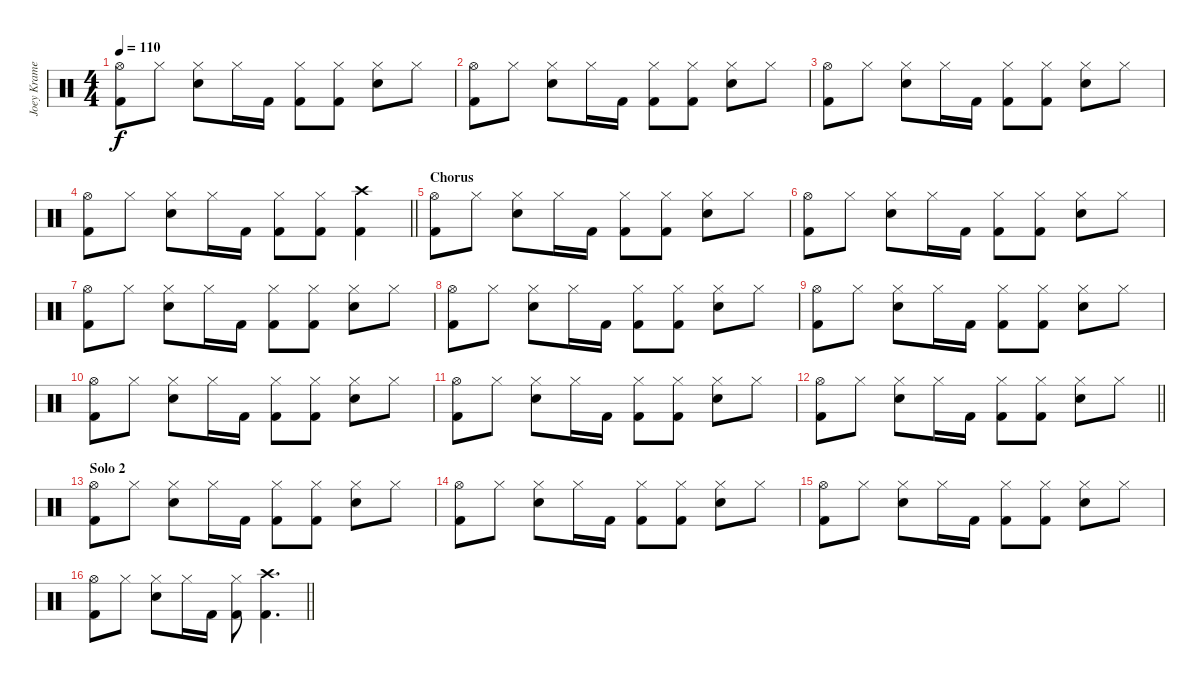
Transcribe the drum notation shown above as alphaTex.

\track ("Joey Kramer - Drums" "Joey Krame") {instrument percussion}
\staff {score}
\articulation defaults
\ts (4 4)
\tempo 110
\clef neutral
\ks c
("Hi-Hat (open)" "Kick (hit) 2").8{dy f} "Hi-Hat (closed)".8 ("Hi-Hat (closed)" "Electric Snare (hit)").8 "Hi-Hat (closed)".16 "Kick (hit) 2".16 ("Hi-Hat (closed)" "Kick (hit) 2").8 ("Hi-Hat (closed)" "Kick (hit) 2").8 ("Hi-Hat (closed)" "Electric Snare (hit)").8 "Hi-Hat (closed)".8 |
("Hi-Hat (open)" "Kick (hit) 2").8 "Hi-Hat (closed)".8 ("Hi-Hat (closed)" "Electric Snare (hit)").8 "Hi-Hat (closed)".16 "Kick (hit) 2".16 ("Hi-Hat (closed)" "Kick (hit) 2").8 ("Hi-Hat (closed)" "Kick (hit) 2").8 ("Hi-Hat (closed)" "Electric Snare (hit)").8 "Hi-Hat (closed)".8 |
("Hi-Hat (open)" "Kick (hit) 2").8 "Hi-Hat (closed)".8 ("Hi-Hat (closed)" "Electric Snare (hit)").8 "Hi-Hat (closed)".16 "Kick (hit) 2".16 ("Hi-Hat (closed)" "Kick (hit) 2").8 ("Hi-Hat (closed)" "Kick (hit) 2").8 ("Hi-Hat (closed)" "Electric Snare (hit)").8 "Hi-Hat (closed)".8 |
\barLineRight lightlight
("Hi-Hat (open)" "Kick (hit) 2").8 "Hi-Hat (closed)".8 ("Hi-Hat (closed)" "Electric Snare (hit)").8 "Hi-Hat (closed)".16 "Kick (hit) 2".16 ("Hi-Hat (closed)" "Kick (hit) 2").8 ("Hi-Hat (closed)" "Kick (hit) 2").8 ("Crash high (hit)" "Kick (hit) 2").4 |
\section ("" "Chorus")
("Hi-Hat (open)" "Kick (hit) 2").8 "Hi-Hat (closed)".8 ("Hi-Hat (closed)" "Electric Snare (hit)").8 "Hi-Hat (closed)".16 "Kick (hit) 2".16 ("Hi-Hat (closed)" "Kick (hit) 2").8 ("Hi-Hat (closed)" "Kick (hit) 2").8 ("Hi-Hat (closed)" "Electric Snare (hit)").8 "Hi-Hat (closed)".8 |
("Hi-Hat (open)" "Kick (hit) 2").8 "Hi-Hat (closed)".8 ("Hi-Hat (closed)" "Electric Snare (hit)").8 "Hi-Hat (closed)".16 "Kick (hit) 2".16 ("Hi-Hat (closed)" "Kick (hit) 2").8 ("Hi-Hat (closed)" "Kick (hit) 2").8 ("Hi-Hat (closed)" "Electric Snare (hit)").8 "Hi-Hat (closed)".8 |
("Hi-Hat (open)" "Kick (hit) 2").8 "Hi-Hat (closed)".8 ("Hi-Hat (closed)" "Electric Snare (hit)").8 "Hi-Hat (closed)".16 "Kick (hit) 2".16 ("Hi-Hat (closed)" "Kick (hit) 2").8 ("Hi-Hat (closed)" "Kick (hit) 2").8 ("Hi-Hat (closed)" "Electric Snare (hit)").8 "Hi-Hat (closed)".8 |
("Hi-Hat (open)" "Kick (hit) 2").8 "Hi-Hat (closed)".8 ("Hi-Hat (closed)" "Electric Snare (hit)").8 "Hi-Hat (closed)".16 "Kick (hit) 2".16 ("Hi-Hat (closed)" "Kick (hit) 2").8 ("Hi-Hat (closed)" "Kick (hit) 2").8 ("Hi-Hat (closed)" "Electric Snare (hit)").8 "Hi-Hat (closed)".8 |
("Hi-Hat (open)" "Kick (hit) 2").8 "Hi-Hat (closed)".8 ("Hi-Hat (closed)" "Electric Snare (hit)").8 "Hi-Hat (closed)".16 "Kick (hit) 2".16 ("Hi-Hat (closed)" "Kick (hit) 2").8 ("Hi-Hat (closed)" "Kick (hit) 2").8 ("Hi-Hat (closed)" "Electric Snare (hit)").8 "Hi-Hat (closed)".8 |
("Hi-Hat (open)" "Kick (hit) 2").8 "Hi-Hat (closed)".8 ("Hi-Hat (closed)" "Electric Snare (hit)").8 "Hi-Hat (closed)".16 "Kick (hit) 2".16 ("Hi-Hat (closed)" "Kick (hit) 2").8 ("Hi-Hat (closed)" "Kick (hit) 2").8 ("Hi-Hat (closed)" "Electric Snare (hit)").8 "Hi-Hat (closed)".8 |
("Hi-Hat (open)" "Kick (hit) 2").8 "Hi-Hat (closed)".8 ("Hi-Hat (closed)" "Electric Snare (hit)").8 "Hi-Hat (closed)".16 "Kick (hit) 2".16 ("Hi-Hat (closed)" "Kick (hit) 2").8 ("Hi-Hat (closed)" "Kick (hit) 2").8 ("Hi-Hat (closed)" "Electric Snare (hit)").8 "Hi-Hat (closed)".8 |
\barLineRight lightlight
("Hi-Hat (open)" "Kick (hit) 2").8 "Hi-Hat (closed)".8 ("Hi-Hat (closed)" "Electric Snare (hit)").8 "Hi-Hat (closed)".16 "Kick (hit) 2".16 ("Hi-Hat (closed)" "Kick (hit) 2").8 ("Hi-Hat (closed)" "Kick (hit) 2").8 ("Hi-Hat (closed)" "Electric Snare (hit)").8 "Hi-Hat (closed)".8 |
\section ("" "Solo 2")
("Hi-Hat (open)" "Kick (hit) 2").8 "Hi-Hat (closed)".8 ("Hi-Hat (closed)" "Electric Snare (hit)").8 "Hi-Hat (closed)".16 "Kick (hit) 2".16 ("Hi-Hat (closed)" "Kick (hit) 2").8 ("Hi-Hat (closed)" "Kick (hit) 2").8 ("Hi-Hat (closed)" "Electric Snare (hit)").8 "Hi-Hat (closed)".8 |
("Hi-Hat (open)" "Kick (hit) 2").8 "Hi-Hat (closed)".8 ("Hi-Hat (closed)" "Electric Snare (hit)").8 "Hi-Hat (closed)".16 "Kick (hit) 2".16 ("Hi-Hat (closed)" "Kick (hit) 2").8 ("Hi-Hat (closed)" "Kick (hit) 2").8 ("Hi-Hat (closed)" "Electric Snare (hit)").8 "Hi-Hat (closed)".8 |
("Hi-Hat (open)" "Kick (hit) 2").8 "Hi-Hat (closed)".8 ("Hi-Hat (closed)" "Electric Snare (hit)").8 "Hi-Hat (closed)".16 "Kick (hit) 2".16 ("Hi-Hat (closed)" "Kick (hit) 2").8 ("Hi-Hat (closed)" "Kick (hit) 2").8 ("Hi-Hat (closed)" "Electric Snare (hit)").8 "Hi-Hat (closed)".8 |
\barLineRight lightlight
("Hi-Hat (open)" "Kick (hit) 2").8 "Hi-Hat (closed)".8 ("Hi-Hat (closed)" "Electric Snare (hit)").8 "Hi-Hat (closed)".16 "Kick (hit) 2".16 ("Hi-Hat (closed)" "Kick (hit) 2").8 ("Crash high (hit)" "Kick (hit) 2").4{d}
